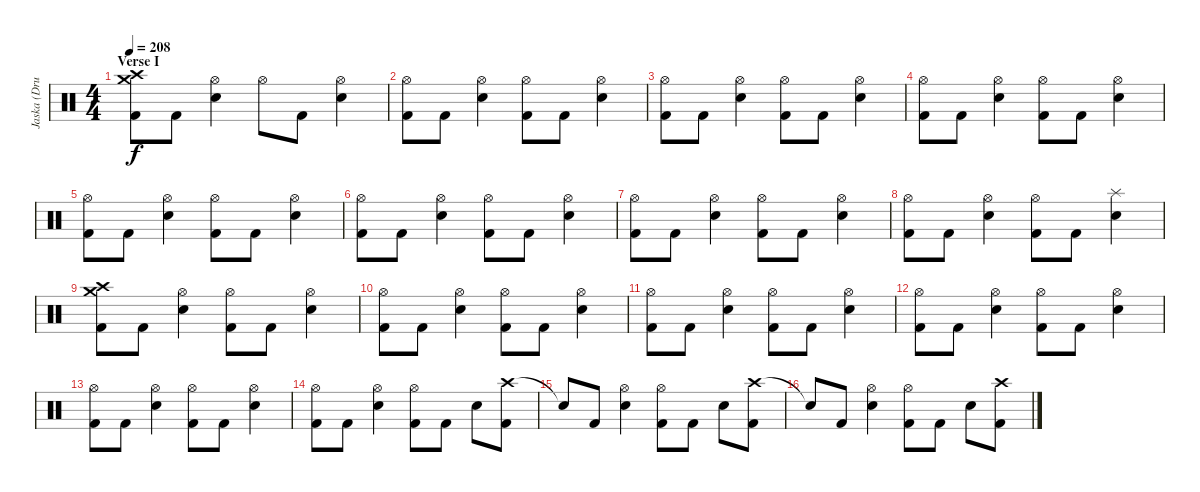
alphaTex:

\track ("Jaska (Drums)" "Jaska (Dru") {instrument percussion}
\staff {score}
\articulation defaults
\ts (4 4)
\section ("" "Verse I")
\tempo 208
\clef neutral
\ks c
("Crash medium (hit)" "Crash high (hit)" "Kick (hit) 2").8{dy f} "Kick (hit) 2".8 ("Hi-Hat (open)" "Electric Snare (hit)").4 "Hi-Hat (open)".8 "Kick (hit) 2".8 ("Hi-Hat (open)" "Electric Snare (hit)").4 |
("Hi-Hat (open)" "Kick (hit) 2").8 "Kick (hit) 2".8 ("Hi-Hat (open)" "Electric Snare (hit)").4 ("Hi-Hat (open)" "Kick (hit) 2").8 "Kick (hit) 2".8 ("Hi-Hat (open)" "Electric Snare (hit)").4 |
("Hi-Hat (open)" "Kick (hit) 2").8 "Kick (hit) 2".8 ("Hi-Hat (open)" "Electric Snare (hit)").4 ("Hi-Hat (open)" "Kick (hit) 2").8 "Kick (hit) 2".8 ("Hi-Hat (open)" "Electric Snare (hit)").4 |
("Hi-Hat (open)" "Kick (hit) 2").8 "Kick (hit) 2".8 ("Hi-Hat (open)" "Electric Snare (hit)").4 ("Hi-Hat (open)" "Kick (hit) 2").8 "Kick (hit) 2".8 ("Hi-Hat (open)" "Electric Snare (hit)").4 |
("Hi-Hat (open)" "Kick (hit) 2").8 "Kick (hit) 2".8 ("Hi-Hat (open)" "Electric Snare (hit)").4 ("Hi-Hat (open)" "Kick (hit) 2").8 "Kick (hit) 2".8 ("Hi-Hat (open)" "Electric Snare (hit)").4 |
("Hi-Hat (open)" "Kick (hit) 2").8 "Kick (hit) 2".8 ("Hi-Hat (open)" "Electric Snare (hit)").4 ("Hi-Hat (open)" "Kick (hit) 2").8 "Kick (hit) 2".8 ("Hi-Hat (open)" "Electric Snare (hit)").4 |
("Hi-Hat (open)" "Kick (hit) 2").8 "Kick (hit) 2".8 ("Hi-Hat (open)" "Electric Snare (hit)").4 ("Hi-Hat (open)" "Kick (hit) 2").8 "Kick (hit) 2".8 ("Hi-Hat (open)" "Electric Snare (hit)").4 |
("Hi-Hat (open)" "Kick (hit) 2").8 "Kick (hit) 2".8 ("Hi-Hat (open)" "Electric Snare (hit)").4 ("Hi-Hat (open)" "Kick (hit) 2").8 "Kick (hit) 2".8 ("Splash (hit)" "Electric Snare (hit)").4 |
("Crash medium (hit)" "Crash high (hit)" "Kick (hit) 2").8 "Kick (hit) 2".8 ("Hi-Hat (open)" "Electric Snare (hit)").4 ("Hi-Hat (open)" "Kick (hit) 2").8 "Kick (hit) 2".8 ("Hi-Hat (open)" "Electric Snare (hit)").4 |
("Hi-Hat (open)" "Kick (hit) 2").8 "Kick (hit) 2".8 ("Hi-Hat (open)" "Electric Snare (hit)").4 ("Hi-Hat (open)" "Kick (hit) 2").8 "Kick (hit) 2".8 ("Hi-Hat (open)" "Electric Snare (hit)").4 |
("Hi-Hat (open)" "Kick (hit) 2").8 "Kick (hit) 2".8 ("Hi-Hat (open)" "Electric Snare (hit)").4 ("Hi-Hat (open)" "Kick (hit) 2").8 "Kick (hit) 2".8 ("Hi-Hat (open)" "Electric Snare (hit)").4 |
("Hi-Hat (open)" "Kick (hit) 2").8 "Kick (hit) 2".8 ("Hi-Hat (open)" "Electric Snare (hit)").4 ("Hi-Hat (open)" "Kick (hit) 2").8 "Kick (hit) 2".8 ("Hi-Hat (open)" "Electric Snare (hit)").4 |
("Hi-Hat (open)" "Kick (hit) 2").8 "Kick (hit) 2".8 ("Hi-Hat (open)" "Electric Snare (hit)").4 ("Hi-Hat (open)" "Kick (hit) 2").8 "Kick (hit) 2".8 ("Hi-Hat (open)" "Electric Snare (hit)").4 |
("Hi-Hat (open)" "Kick (hit) 2").8 "Kick (hit) 2".8 ("Hi-Hat (open)" "Electric Snare (hit)").4 ("Hi-Hat (open)" "Kick (hit) 2").8 "Kick (hit) 2".8 "Electric Snare (hit)".8 ("Crash high (hit)" "Kick (hit) 2").8 |
"Snare (hit)"{t}.8 "Kick (hit) 2".8 ("Hi-Hat (open)" "Electric Snare (hit)").4 ("Hi-Hat (open)" "Kick (hit) 2").8 "Kick (hit) 2".8 "Electric Snare (hit)".8 ("Crash high (hit)" "Kick (hit) 2").8 |
"Snare (hit)"{t}.8 "Kick (hit) 2".8 ("Hi-Hat (open)" "Electric Snare (hit)").4 ("Hi-Hat (open)" "Kick (hit) 2").8 "Kick (hit) 2".8 "Electric Snare (hit)".8 ("Crash high (hit)" "Kick (hit) 2").8
